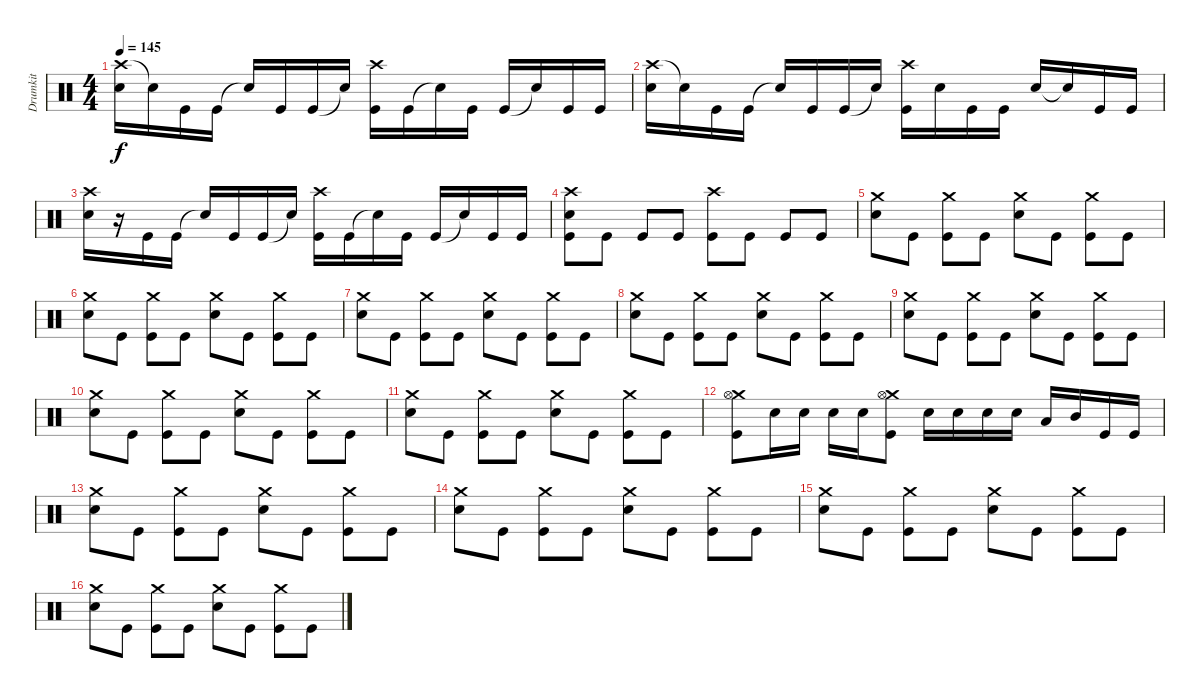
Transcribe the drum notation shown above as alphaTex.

\track ("Drumkit" "Drumkit") {instrument percussion}
\staff {score}
\articulation defaults
\ts (4 4)
\tempo 145
\clef neutral
\ks c
("Crash high (hit)" "Electric Snare (hit)").16{dy f} "Snare (hit)"{t}.16 "Kick (hit)".16 "Kick (hit)".16 "Snare (hit)"{t}.16 "Kick (hit)".16 "Kick (hit)".16 "Snare (hit)"{t}.16 ("Crash high (hit)" "Kick (hit)").16 "Kick (hit)".16 "Snare (hit)"{t}.16 "Kick (hit)".16 "Kick (hit)".16 "Snare (hit)"{t}.16 "Kick (hit)".16 "Kick (hit)".16 |
("Crash high (hit)" "Electric Snare (hit)").16 "Snare (hit)"{t}.16 "Kick (hit)".16 "Kick (hit)".16 "Snare (hit)"{t}.16 "Kick (hit)".16 "Kick (hit)".16 "Snare (hit)"{t}.16 ("Crash high (hit)" "Kick (hit)").16 "Electric Snare (hit)".16 "Kick (hit)".16 "Kick (hit)".16 "Electric Snare (hit)".16 "Snare (hit)"{t}.16 "Kick (hit)".16 "Kick (hit)".16 |
("Crash high (hit)" "Electric Snare (hit)").16 r.16 "Kick (hit)".16 "Kick (hit)".16 "Snare (hit)"{t}.16 "Kick (hit)".16 "Kick (hit)".16 "Snare (hit)"{t}.16 ("Crash high (hit)" "Kick (hit)").16 "Kick (hit)".16 "Snare (hit)"{t}.16 "Kick (hit)".16 "Kick (hit)".16 "Snare (hit)"{t}.16 "Kick (hit)".16 "Kick (hit)".16 |
("Crash high (hit)" "Electric Snare (hit)" "Kick (hit)").8 "Kick (hit)".8 "Kick (hit)".8 "Kick (hit)".8 ("Crash high (hit)" "Kick (hit)").8 "Kick (hit)".8 "Kick (hit)".8 "Kick (hit)".8 |
("Crash medium (hit)" "Electric Snare (hit)").8 "Kick (hit)".8 ("Crash medium (hit)" "Kick (hit)").8 "Kick (hit)".8 ("Crash medium (hit)" "Electric Snare (hit)").8 "Kick (hit)".8 ("Crash medium (hit)" "Kick (hit)").8 "Kick (hit)".8 |
("Crash medium (hit)" "Electric Snare (hit)").8 "Kick (hit)".8 ("Crash medium (hit)" "Kick (hit)").8 "Kick (hit)".8 ("Crash medium (hit)" "Electric Snare (hit)").8 "Kick (hit)".8 ("Crash medium (hit)" "Kick (hit)").8 "Kick (hit)".8 |
("Crash medium (hit)" "Electric Snare (hit)").8 "Kick (hit)".8 ("Crash medium (hit)" "Kick (hit)").8 "Kick (hit)".8 ("Crash medium (hit)" "Electric Snare (hit)").8 "Kick (hit)".8 ("Crash medium (hit)" "Kick (hit)").8 "Kick (hit)".8 |
("Crash medium (hit)" "Electric Snare (hit)").8 "Kick (hit)".8 ("Crash medium (hit)" "Kick (hit)").8 "Kick (hit)".8 ("Crash medium (hit)" "Electric Snare (hit)").8 "Kick (hit)".8 ("Crash medium (hit)" "Kick (hit)").8 "Kick (hit)".8 |
("Crash medium (hit)" "Electric Snare (hit)").8 "Kick (hit)".8 ("Crash medium (hit)" "Kick (hit)").8 "Kick (hit)".8 ("Crash medium (hit)" "Electric Snare (hit)").8 "Kick (hit)".8 ("Crash medium (hit)" "Kick (hit)").8 "Kick (hit)".8 |
("Crash medium (hit)" "Electric Snare (hit)").8 "Kick (hit)".8 ("Crash medium (hit)" "Kick (hit)").8 "Kick (hit)".8 ("Crash medium (hit)" "Electric Snare (hit)").8 "Kick (hit)".8 ("Crash medium (hit)" "Kick (hit)").8 "Kick (hit)".8 |
("Crash medium (hit)" "Electric Snare (hit)").8 "Kick (hit)".8 ("Crash medium (hit)" "Kick (hit)").8 "Kick (hit)".8 ("Crash medium (hit)" "Electric Snare (hit)").8 "Kick (hit)".8 ("Crash medium (hit)" "Kick (hit)").8 "Kick (hit)".8 |
("Crash medium (hit)" "Hi-Hat (open)" "Kick (hit)").8 "Electric Snare (hit)".16 "Electric Snare (hit)".16 "Electric Snare (hit)".16 "Electric Snare (hit)".16 ("Crash medium (hit)" "Hi-Hat (open)" "Kick (hit)").8 "Electric Snare (hit)".16 "Electric Snare (hit)".16 "Electric Snare (hit)".16 "Electric Snare (hit)".16 "Low Tom (hit)".16 "Mid Tom (hit)".16 "Kick (hit)".16 "Kick (hit)".16 |
("Crash medium (hit)" "Electric Snare (hit)").8 "Kick (hit)".8 ("Crash medium (hit)" "Kick (hit)").8 "Kick (hit)".8 ("Crash medium (hit)" "Electric Snare (hit)").8 "Kick (hit)".8 ("Crash medium (hit)" "Kick (hit)").8 "Kick (hit)".8 |
("Crash medium (hit)" "Electric Snare (hit)").8 "Kick (hit)".8 ("Crash medium (hit)" "Kick (hit)").8 "Kick (hit)".8 ("Crash medium (hit)" "Electric Snare (hit)").8 "Kick (hit)".8 ("Crash medium (hit)" "Kick (hit)").8 "Kick (hit)".8 |
("Crash medium (hit)" "Electric Snare (hit)").8 "Kick (hit)".8 ("Crash medium (hit)" "Kick (hit)").8 "Kick (hit)".8 ("Crash medium (hit)" "Electric Snare (hit)").8 "Kick (hit)".8 ("Crash medium (hit)" "Kick (hit)").8 "Kick (hit)".8 |
("Crash medium (hit)" "Electric Snare (hit)").8 "Kick (hit)".8 ("Crash medium (hit)" "Kick (hit)").8 "Kick (hit)".8 ("Crash medium (hit)" "Electric Snare (hit)").8 "Kick (hit)".8 ("Crash medium (hit)" "Kick (hit)").8 "Kick (hit)".8
